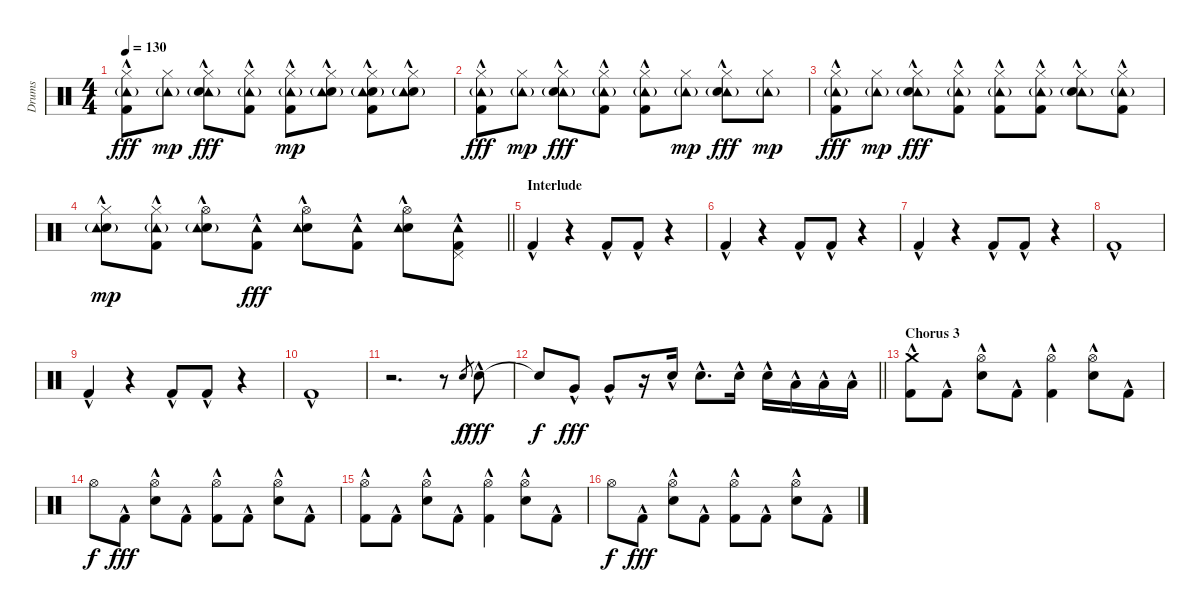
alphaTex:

\track ("Drums" "Drums") {instrument percussion}
\staff {score}
\articulation defaults
\ts (4 4)
\tempo 130
\clef neutral
\ks c
("Hi-Hat (closed)" "Tambourine (hit)"{g} "Kick (hit) 2"{hac}).8{dy fff} ("Hi-Hat (closed)" "Tambourine (hit)"{g}).8{dy mp} ("Hi-Hat (closed)" "Tambourine (hit)"{g} "Electric Snare (hit)"{hac}).8{dy fff} ("Hi-Hat (closed)" "Tambourine (hit)"{g} "Kick (hit) 2"{hac}).8 ("Hi-Hat (closed)" "Kick (hit) 2"{hac} "Tambourine (hit)"{g}).8{dy mp} ("Hi-Hat (closed)" "Electric Snare (hit)"{hac} "Tambourine (hit)"{g}).8 ("Hi-Hat (closed)" "Electric Snare (hit)"{hac} "Kick (hit) 2"{hac} "Tambourine (hit)"{g}).8 ("Hi-Hat (closed)" "Electric Snare (hit)"{hac} "Tambourine (hit)"{g}).8 |
("Hi-Hat (closed)" "Tambourine (hit)"{g} "Kick (hit) 2"{hac}).8{dy fff} ("Hi-Hat (closed)" "Tambourine (hit)"{g}).8{dy mp} ("Hi-Hat (closed)" "Tambourine (hit)"{g} "Electric Snare (hit)"{hac}).8{dy fff} ("Hi-Hat (closed)" "Tambourine (hit)"{g} "Kick (hit) 2"{hac}).8 ("Hi-Hat (closed)" "Tambourine (hit)"{g} "Kick (hit) 2"{hac}).8 ("Hi-Hat (closed)" "Tambourine (hit)"{g}).8{dy mp} ("Hi-Hat (closed)" "Tambourine (hit)"{g} "Electric Snare (hit)"{hac}).8{dy fff} ("Hi-Hat (closed)" "Tambourine (hit)"{g}).8{dy mp} |
("Hi-Hat (closed)" "Tambourine (hit)"{g} "Kick (hit) 2"{hac}).8{dy fff} ("Hi-Hat (closed)" "Tambourine (hit)"{g}).8{dy mp} ("Hi-Hat (closed)" "Tambourine (hit)"{g} "Electric Snare (hit)"{hac}).8{dy fff} ("Hi-Hat (closed)" "Tambourine (hit)"{g} "Kick (hit) 2"{hac}).8 ("Hi-Hat (closed)" "Tambourine (hit)"{g} "Kick (hit) 2"{hac}).8 ("Hi-Hat (closed)" "Tambourine (hit)"{g} "Kick (hit) 2"{hac}).8 ("Hi-Hat (closed)" "Tambourine (hit)"{g} "Electric Snare (hit)"{hac}).8 ("Hi-Hat (closed)" "Tambourine (hit)"{g} "Kick (hit) 2"{hac}).8 |
\barLineRight lightlight
("Hi-Hat (closed)" "Electric Snare (hit)"{hac} "Tambourine (hit)"{g}).8{dy mp} ("Hi-Hat (closed)" "Kick (hit) 2"{hac} "Tambourine (hit)"{g}).8 ("Hi-Hat (open)" "Electric Snare (hit)"{hac} "Tambourine (hit)"{g}).8 ("Kick (hit) 2"{hac} "Tambourine (hit)").8{dy fff} ("Hi-Hat (open)" "Electric Snare (hit)"{hac} "Tambourine (hit)").8 ("Kick (hit) 2"{hac} "Tambourine (hit)").8 ("Hi-Hat (open)" "Electric Snare (hit)"{hac} "Tambourine (hit)").8 ("Pedal Hi-Hat (hit)" "Kick (hit) 2"{hac} "Tambourine (hit)").8 |
\section ("" "Interlude")
"Kick (hit) 2"{hac}.4 r.4 "Kick (hit) 2"{hac}.8 "Kick (hit) 2"{hac}.8 r.4 |
"Kick (hit) 2"{hac}.4 r.4 "Kick (hit) 2"{hac}.8 "Kick (hit) 2"{hac}.8 r.4 |
"Kick (hit) 2"{hac}.4 r.4 "Kick (hit) 2"{hac}.8 "Kick (hit) 2"{hac}.8 r.4 |
"Kick (hit) 2"{hac}.1 |
"Kick (hit) 2"{hac}.4 r.4 "Kick (hit) 2"{hac}.8 "Kick (hit) 2"{hac}.8 r.4 |
"Kick (hit) 2"{hac}.1 |
r.2{d} r.8 "Electric Snare (hit)".8{gr dy f} "Electric Snare (hit)"{hac}.8{dy fff} |
\barLineRight lightlight "Electric Snare (hit)"{t}.8{dy f} "Very Low Tom (hit)"{hac}.8{dy fff} "Very Low Tom (hit)"{hac}.8
r.16 "Electric Snare (hit)"{hac}.16 "Electric Snare (hit)"{hac}.8{d} "Electric Snare (hit)"{hac}.16 "Electric Snare (hit)"{hac}.16 "Low Tom (hit)"{hac}.16 "Low Tom (hit)"{hac}.16 "Low Floor Tom (hit)"{hac}.16 |
\section ("" "Chorus 3")
("Crash medium (hit)" "Kick (hit) 2"{hac}).8 "Kick (hit) 2"{hac}.8 ("Hi-Hat (open)" "Electric Snare (hit)"{hac}).8 "Kick (hit) 2"{hac}.8 ("Hi-Hat (open)" "Kick (hit) 2"{hac}).4 ("Hi-Hat (open)" "Electric Snare (hit)"{hac}).8 "Kick (hit) 2"{hac}.8 |
"Hi-Hat (open)".8{dy f} "Kick (hit) 2"{hac}.8{dy fff} ("Hi-Hat (open)" "Electric Snare (hit)"{hac}).8 "Kick (hit) 2"{hac}.8 ("Hi-Hat (open)" "Kick (hit) 2"{hac}).8 "Kick (hit) 2"{hac}.8 ("Hi-Hat (open)" "Electric Snare (hit)"{hac}).8 "Kick (hit) 2"{hac}.8 |
("Hi-Hat (open)" "Kick (hit) 2"{hac}).8 "Kick (hit) 2"{hac}.8 ("Hi-Hat (open)" "Electric Snare (hit)"{hac}).8 "Kick (hit) 2"{hac}.8 ("Hi-Hat (open)" "Kick (hit) 2"{hac}).4 ("Hi-Hat (open)" "Electric Snare (hit)"{hac}).8 "Kick (hit) 2"{hac}.8 |
"Hi-Hat (open)".8{dy f} "Kick (hit) 2"{hac}.8{dy fff} ("Hi-Hat (open)" "Electric Snare (hit)"{hac}).8 "Kick (hit) 2"{hac}.8 ("Hi-Hat (open)" "Kick (hit) 2"{hac}).8 "Kick (hit) 2"{hac}.8 ("Hi-Hat (open)" "Electric Snare (hit)"{hac}).8 "Kick (hit) 2"{hac}.8
